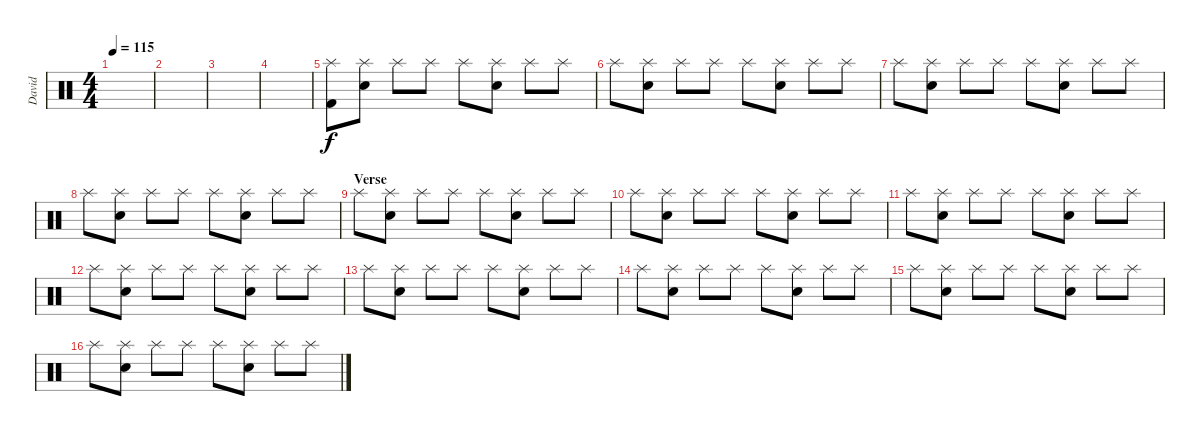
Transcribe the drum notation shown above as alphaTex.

\track ("David" "David") {instrument percussion}
\staff {score}
\articulation defaults
\ts (4 4)
\tempo 115
\clef neutral
\ks c
|
|
|
|
("Splash (hit)" "Kick (hit) 2").8 ("Splash (hit)" "Electric Snare (hit)").8 "Splash (hit)".8 "Splash (hit)".8 "Splash (hit)".8 ("Splash (hit)" "Electric Snare (hit)").8 "Splash (hit)".8 "Splash (hit)".8 |
"Splash (hit)".8 ("Splash (hit)" "Electric Snare (hit)").8 "Splash (hit)".8 "Splash (hit)".8 "Splash (hit)".8 ("Splash (hit)" "Electric Snare (hit)").8 "Splash (hit)".8 "Splash (hit)".8 |
"Splash (hit)".8 ("Splash (hit)" "Electric Snare (hit)").8 "Splash (hit)".8 "Splash (hit)".8 "Splash (hit)".8 ("Splash (hit)" "Electric Snare (hit)").8 "Splash (hit)".8 "Splash (hit)".8 |
"Splash (hit)".8 ("Splash (hit)" "Electric Snare (hit)").8 "Splash (hit)".8 "Splash (hit)".8 "Splash (hit)".8 ("Splash (hit)" "Electric Snare (hit)").8 "Splash (hit)".8 "Splash (hit)".8 |
\section ("" "Verse")
"Splash (hit)".8 ("Splash (hit)" "Electric Snare (hit)").8 "Splash (hit)".8 "Splash (hit)".8 "Splash (hit)".8 ("Splash (hit)" "Electric Snare (hit)").8 "Splash (hit)".8 "Splash (hit)".8 |
"Splash (hit)".8 ("Splash (hit)" "Electric Snare (hit)").8 "Splash (hit)".8 "Splash (hit)".8 "Splash (hit)".8 ("Splash (hit)" "Electric Snare (hit)").8 "Splash (hit)".8 "Splash (hit)".8 |
"Splash (hit)".8 ("Splash (hit)" "Electric Snare (hit)").8 "Splash (hit)".8 "Splash (hit)".8 "Splash (hit)".8 ("Splash (hit)" "Electric Snare (hit)").8 "Splash (hit)".8 "Splash (hit)".8 |
"Splash (hit)".8 ("Splash (hit)" "Electric Snare (hit)").8 "Splash (hit)".8 "Splash (hit)".8 "Splash (hit)".8 ("Splash (hit)" "Electric Snare (hit)").8 "Splash (hit)".8 "Splash (hit)".8 |
"Splash (hit)".8 ("Splash (hit)" "Electric Snare (hit)").8 "Splash (hit)".8 "Splash (hit)".8 "Splash (hit)".8 ("Splash (hit)" "Electric Snare (hit)").8 "Splash (hit)".8 "Splash (hit)".8 |
"Splash (hit)".8 ("Splash (hit)" "Electric Snare (hit)").8 "Splash (hit)".8 "Splash (hit)".8 "Splash (hit)".8 ("Splash (hit)" "Electric Snare (hit)").8 "Splash (hit)".8 "Splash (hit)".8 |
"Splash (hit)".8 ("Splash (hit)" "Electric Snare (hit)").8 "Splash (hit)".8 "Splash (hit)".8 "Splash (hit)".8 ("Splash (hit)" "Electric Snare (hit)").8 "Splash (hit)".8 "Splash (hit)".8 |
"Splash (hit)".8 ("Splash (hit)" "Electric Snare (hit)").8 "Splash (hit)".8 "Splash (hit)".8 "Splash (hit)".8 ("Splash (hit)" "Electric Snare (hit)").8 "Splash (hit)".8 "Splash (hit)".8
